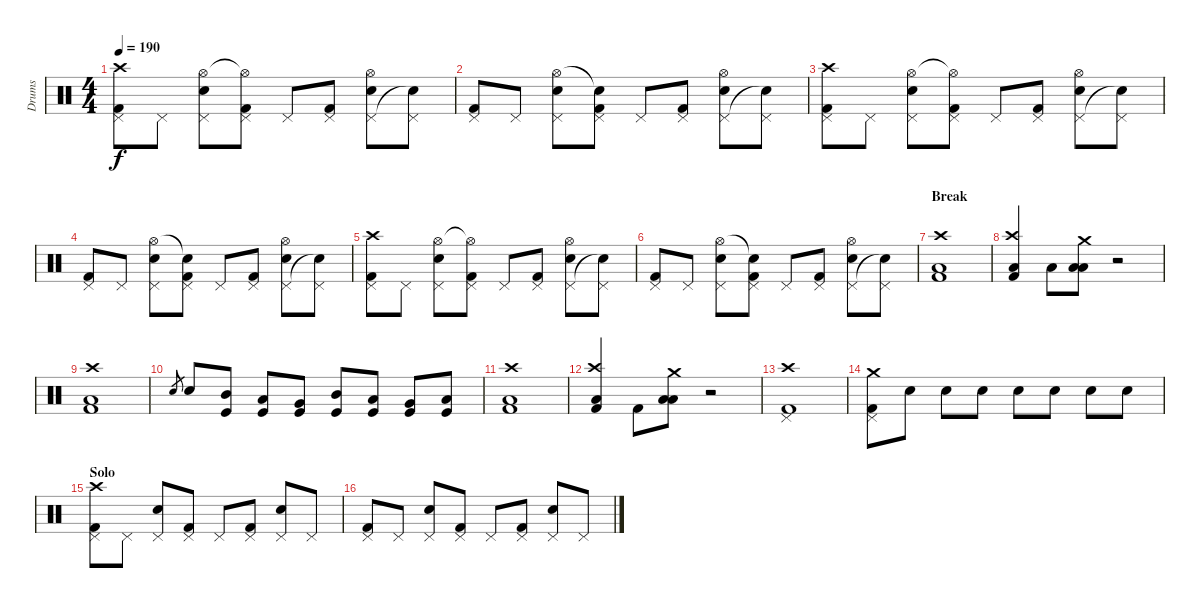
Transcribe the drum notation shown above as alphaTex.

\track ("Drums" "Drums") {instrument percussion}
\staff {score}
\articulation defaults
\ts (4 4)
\tempo 190
\clef neutral
\ks c
("Kick (hit) 2" "Pedal Hi-Hat (hit)" "Crash high (hit)").8{dy f} "Pedal Hi-Hat (hit)".8 ("Snare (hit) 2" "Pedal Hi-Hat (hit)" "Hi-Hat (open)").8 ("Kick (hit) 2" "Pedal Hi-Hat (hit)" "Hi-Hat (open)"{t}).8 "Pedal Hi-Hat (hit)".8 ("Kick (hit) 2" "Pedal Hi-Hat (hit)").8 ("Snare (hit) 2" "Pedal Hi-Hat (hit)" "Hi-Hat (open)").8 ("Pedal Hi-Hat (hit)" "Snare (hit)"{t}).8 |
("Kick (hit) 2" "Pedal Hi-Hat (hit)").8 "Pedal Hi-Hat (hit)".8 ("Snare (hit) 2" "Pedal Hi-Hat (hit)" "Hi-Hat (open)").8 ("Kick (hit) 2" "Pedal Hi-Hat (hit)" "Snare (hit)"{t}).8 "Pedal Hi-Hat (hit)".8 ("Kick (hit) 2" "Pedal Hi-Hat (hit)").8 ("Snare (hit) 2" "Pedal Hi-Hat (hit)" "Hi-Hat (open)").8 ("Pedal Hi-Hat (hit)" "Snare (hit)"{t}).8 |
("Kick (hit) 2" "Pedal Hi-Hat (hit)" "Crash high (hit)").8 "Pedal Hi-Hat (hit)".8 ("Snare (hit) 2" "Pedal Hi-Hat (hit)" "Hi-Hat (open)").8 ("Kick (hit) 2" "Pedal Hi-Hat (hit)" "Hi-Hat (open)"{t}).8 "Pedal Hi-Hat (hit)".8 ("Kick (hit) 2" "Pedal Hi-Hat (hit)").8 ("Snare (hit) 2" "Pedal Hi-Hat (hit)" "Hi-Hat (open)").8 ("Pedal Hi-Hat (hit)" "Snare (hit)"{t}).8 |
("Kick (hit) 2" "Pedal Hi-Hat (hit)").8 "Pedal Hi-Hat (hit)".8 ("Snare (hit) 2" "Pedal Hi-Hat (hit)" "Hi-Hat (open)").8 ("Kick (hit) 2" "Pedal Hi-Hat (hit)" "Snare (hit)"{t}).8 "Pedal Hi-Hat (hit)".8 ("Kick (hit) 2" "Pedal Hi-Hat (hit)").8 ("Snare (hit) 2" "Pedal Hi-Hat (hit)" "Hi-Hat (open)").8 ("Pedal Hi-Hat (hit)" "Snare (hit)"{t}).8 |
("Kick (hit) 2" "Pedal Hi-Hat (hit)" "Crash high (hit)").8 "Pedal Hi-Hat (hit)".8 ("Snare (hit) 2" "Pedal Hi-Hat (hit)" "Hi-Hat (open)").8 ("Kick (hit) 2" "Pedal Hi-Hat (hit)" "Hi-Hat (open)"{t}).8 "Pedal Hi-Hat (hit)".8 ("Kick (hit) 2" "Pedal Hi-Hat (hit)").8 ("Snare (hit) 2" "Pedal Hi-Hat (hit)" "Hi-Hat (open)").8 ("Pedal Hi-Hat (hit)" "Snare (hit)"{t}).8 |
("Kick (hit) 2" "Pedal Hi-Hat (hit)").8 "Pedal Hi-Hat (hit)".8 ("Snare (hit) 2" "Pedal Hi-Hat (hit)" "Hi-Hat (open)").8 ("Kick (hit) 2" "Pedal Hi-Hat (hit)" "Snare (hit)"{t}).8 "Pedal Hi-Hat (hit)".8 ("Kick (hit) 2" "Pedal Hi-Hat (hit)").8 ("Snare (hit) 2" "Pedal Hi-Hat (hit)" "Hi-Hat (open)").8 ("Pedal Hi-Hat (hit)" "Snare (hit)"{t}).8 |
\section ("" "Break")
("Kick (hit) 2" "Low Tom (hit)" "Crash high (hit)").1 |
("Kick (hit) 2" "Low Tom (hit)" "Crash high (hit)").4 "Low Tom (hit)".8 ("Low Floor Tom (hit)" "Low Tom (hit)" "Crash medium (hit)").8 r.2 |
("Kick (hit) 2" "Low Tom (hit)" "Crash high (hit)").1 |
"Snare (hit) 2".8{gr} "Snare (hit) 2".8 ("Mid Tom (hit)" "Kick (hit)").8 ("Low Tom (hit)" "Kick (hit)").8 ("Very Low Tom (hit)" "Kick (hit)").8 ("Mid Tom (hit)" "Kick (hit)").8 ("Low Tom (hit)" "Kick (hit)").8 ("Very Low Tom (hit)" "Kick (hit)").8 ("Low Floor Tom (hit)" "Kick (hit)").8 |
("Kick (hit) 2" "Low Floor Tom (hit)" "Crash high (hit)").1 |
("Kick (hit) 2" "Low Tom (hit)" "Crash high (hit)").4 "Kick (hit) 2".8 ("Low Floor Tom (hit)" "Low Tom (hit)" "Crash medium (hit)").8 r.2 |
("Kick (hit) 2" "Pedal Hi-Hat (hit)" "Crash high (hit)").1 |
("Kick (hit) 2" "Pedal Hi-Hat (hit)" "Crash medium (hit)").8 "Snare (hit) 2".8 "Snare (hit) 2".8 "Snare (hit) 2".8 "Snare (hit) 2".8 "Snare (hit) 2".8 "Snare (hit) 2".8 "Snare (hit) 2".8 |
\section ("" "Solo")
("Kick (hit) 2" "Pedal Hi-Hat (hit)" "Crash high (hit)").8 "Pedal Hi-Hat (hit)".8 ("Snare (hit) 2" "Pedal Hi-Hat (hit)").8 ("Kick (hit) 2" "Pedal Hi-Hat (hit)").8 "Pedal Hi-Hat (hit)".8 ("Kick (hit) 2" "Pedal Hi-Hat (hit)").8 ("Snare (hit) 2" "Pedal Hi-Hat (hit)").8 "Pedal Hi-Hat (hit)".8 |
("Kick (hit) 2" "Pedal Hi-Hat (hit)").8 "Pedal Hi-Hat (hit)".8 ("Snare (hit) 2" "Pedal Hi-Hat (hit)").8 ("Kick (hit) 2" "Pedal Hi-Hat (hit)").8 "Pedal Hi-Hat (hit)".8 ("Kick (hit) 2" "Pedal Hi-Hat (hit)").8 ("Snare (hit) 2" "Pedal Hi-Hat (hit)").8 "Pedal Hi-Hat (hit)".8
